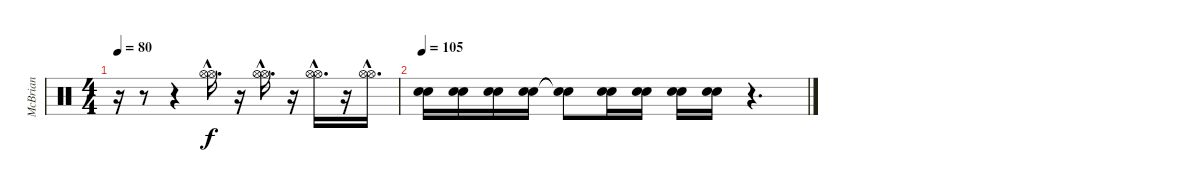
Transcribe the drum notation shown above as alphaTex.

\track ("McBrian" "McBrian") {instrument percussion}
\staff {score}
\articulation defaults
\ts (4 4)
\tempo 80
\clef neutral
\ks c
r.16{dy f} r.8 r.4 ("Hi-Hat (open)"{hac} "Hi-Hat (open)"{hac}).16{d} r.16 ("Hi-Hat (open)"{hac} "Hi-Hat (open)"{hac}).16{d} r.16 ("Hi-Hat (open)"{hac} "Hi-Hat (open)"{hac}).16{d} r.16 ("Hi-Hat (open)"{hac} "Hi-Hat (open)"{hac}).16{d} |
\tempo 105
("Snare (hit) 2" "Snare (hit) 2").16 ("Snare (hit) 2" "Snare (hit) 2").16 ("Snare (hit) 2" "Snare (hit) 2").16 ("Snare (hit) 2" "Snare (hit) 2").16 ("Snare (hit)"{t} "Snare (hit)"{t}).8 ("Snare (hit) 2" "Snare (hit) 2").16 ("Snare (hit) 2" "Snare (hit) 2").16 ("Snare (hit) 2" "Snare (hit) 2").16 ("Snare (hit) 2" "Snare (hit) 2").16 r.4{d}
